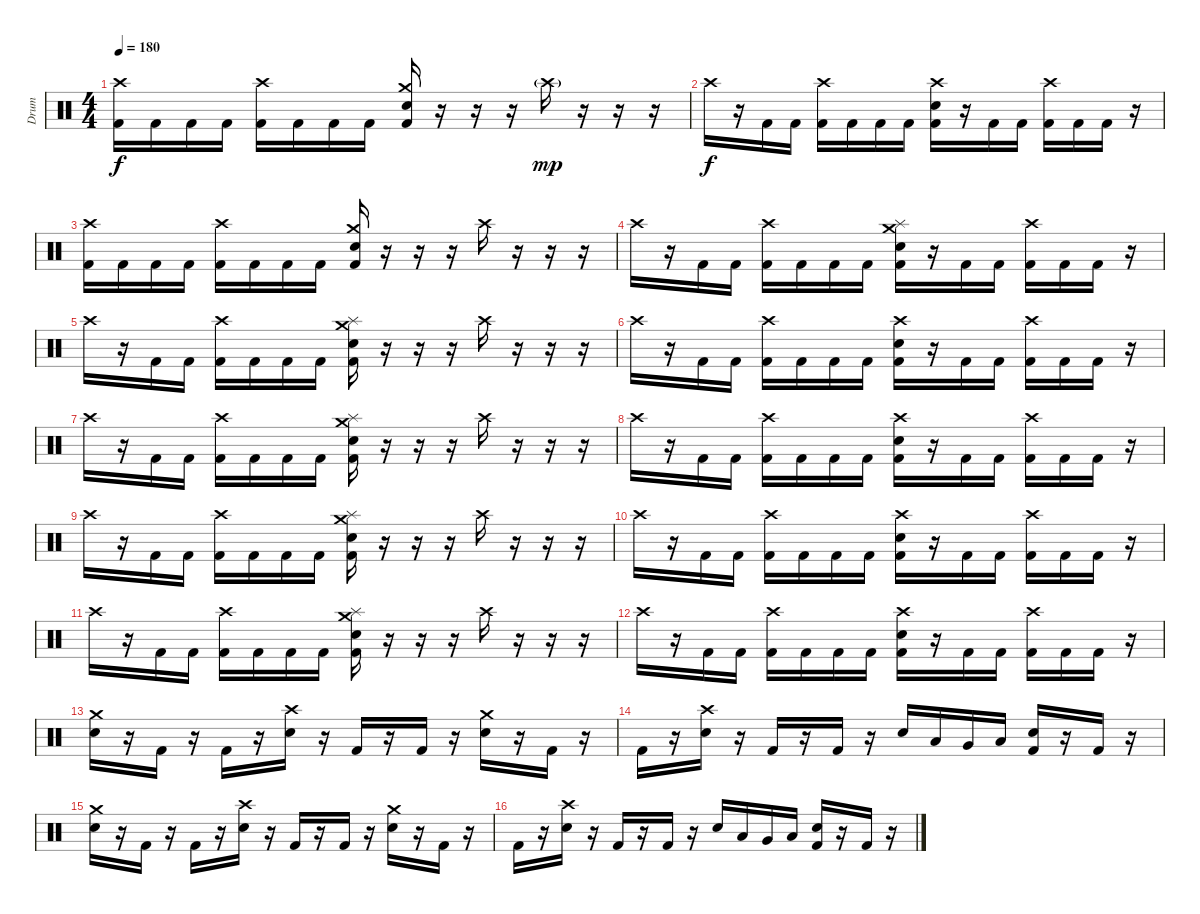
\track ("Drum" "Drum") {instrument percussion}
\staff {score}
\articulation defaults
\ts (4 4)
\tempo 180
\clef neutral
\ks c
("Crash high (hit)" "Kick (hit) 2").16{dy f} "Kick (hit) 2".16 "Kick (hit) 2".16 "Kick (hit) 2".16 ("Crash high (hit)" "Kick (hit) 2").16 "Kick (hit) 2".16 "Kick (hit) 2".16 "Kick (hit) 2".16 ("Crash medium (hit)" "Electric Snare (hit)" "Kick (hit) 2").16 r.16 r.16 r.16 "Crash high (hit)"{g}.16{dy mp} r.16 r.16 r.16 |
"Crash high (hit)".16{dy f} r.16 "Kick (hit) 2".16 "Kick (hit) 2".16 ("Crash high (hit)" "Kick (hit) 2").16 "Kick (hit) 2".16 "Kick (hit) 2".16 "Kick (hit) 2".16 ("Crash high (hit)" "Electric Snare (hit)" "Kick (hit) 2").16 r.16 "Kick (hit) 2".16 "Kick (hit) 2".16 ("Crash high (hit)" "Kick (hit) 2").16 "Kick (hit) 2".16 "Kick (hit) 2".16 r.16 |
("Crash high (hit)" "Kick (hit) 2").16 "Kick (hit) 2".16 "Kick (hit) 2".16 "Kick (hit) 2".16 ("Crash high (hit)" "Kick (hit) 2").16 "Kick (hit) 2".16 "Kick (hit) 2".16 "Kick (hit) 2".16 ("Crash medium (hit)" "Electric Snare (hit)" "Kick (hit) 2").16 r.16 r.16 r.16 "Crash high (hit)".16 r.16 r.16 r.16 |
"Crash high (hit)".16 r.16 "Kick (hit) 2".16 "Kick (hit) 2".16 ("Crash high (hit)" "Kick (hit) 2").16 "Kick (hit) 2".16 "Kick (hit) 2".16 "Kick (hit) 2".16 ("Crash medium (hit)" "Splash (hit)" "Electric Snare (hit)" "Kick (hit) 2").16 r.16 "Kick (hit) 2".16 "Kick (hit) 2".16 ("Crash high (hit)" "Kick (hit) 2").16 "Kick (hit) 2".16 "Kick (hit) 2".16 r.16 |
"Crash high (hit)".16 r.16 "Kick (hit) 2".16 "Kick (hit) 2".16 ("Crash high (hit)" "Kick (hit) 2").16 "Kick (hit) 2".16 "Kick (hit) 2".16 "Kick (hit) 2".16 ("Crash medium (hit)" "Splash (hit)" "Electric Snare (hit)" "Kick (hit) 2").16 r.16 r.16 r.16 "Crash high (hit)".16 r.16 r.16 r.16 |
"Crash high (hit)".16 r.16 "Kick (hit) 2".16 "Kick (hit) 2".16 ("Crash high (hit)" "Kick (hit) 2").16 "Kick (hit) 2".16 "Kick (hit) 2".16 "Kick (hit) 2".16 ("Crash high (hit)" "Electric Snare (hit)" "Kick (hit) 2").16 r.16 "Kick (hit) 2".16 "Kick (hit) 2".16 ("Crash high (hit)" "Kick (hit) 2").16 "Kick (hit) 2".16 "Kick (hit) 2".16 r.16 |
"Crash high (hit)".16 r.16 "Kick (hit) 2".16 "Kick (hit) 2".16 ("Crash high (hit)" "Kick (hit) 2").16 "Kick (hit) 2".16 "Kick (hit) 2".16 "Kick (hit) 2".16 ("Crash medium (hit)" "Splash (hit)" "Electric Snare (hit)" "Kick (hit) 2").16 r.16 r.16 r.16 "Crash high (hit)".16 r.16 r.16 r.16 |
"Crash high (hit)".16 r.16 "Kick (hit) 2".16 "Kick (hit) 2".16 ("Crash high (hit)" "Kick (hit) 2").16 "Kick (hit) 2".16 "Kick (hit) 2".16 "Kick (hit) 2".16 ("Crash high (hit)" "Electric Snare (hit)" "Kick (hit) 2").16 r.16 "Kick (hit) 2".16 "Kick (hit) 2".16 ("Crash high (hit)" "Kick (hit) 2").16 "Kick (hit) 2".16 "Kick (hit) 2".16 r.16 |
"Crash high (hit)".16 r.16 "Kick (hit) 2".16 "Kick (hit) 2".16 ("Crash high (hit)" "Kick (hit) 2").16 "Kick (hit) 2".16 "Kick (hit) 2".16 "Kick (hit) 2".16 ("Crash medium (hit)" "Splash (hit)" "Electric Snare (hit)" "Kick (hit) 2").16 r.16 r.16 r.16 "Crash high (hit)".16 r.16 r.16 r.16 |
"Crash high (hit)".16 r.16 "Kick (hit) 2".16 "Kick (hit) 2".16 ("Crash high (hit)" "Kick (hit) 2").16 "Kick (hit) 2".16 "Kick (hit) 2".16 "Kick (hit) 2".16 ("Crash high (hit)" "Electric Snare (hit)" "Kick (hit) 2").16 r.16 "Kick (hit) 2".16 "Kick (hit) 2".16 ("Crash high (hit)" "Kick (hit) 2").16 "Kick (hit) 2".16 "Kick (hit) 2".16 r.16 |
"Crash high (hit)".16 r.16 "Kick (hit) 2".16 "Kick (hit) 2".16 ("Crash high (hit)" "Kick (hit) 2").16 "Kick (hit) 2".16 "Kick (hit) 2".16 "Kick (hit) 2".16 ("Crash medium (hit)" "Splash (hit)" "Electric Snare (hit)" "Kick (hit) 2").16 r.16 r.16 r.16 "Crash high (hit)".16 r.16 r.16 r.16 |
"Crash high (hit)".16 r.16 "Kick (hit) 2".16 "Kick (hit) 2".16 ("Crash high (hit)" "Kick (hit) 2").16 "Kick (hit) 2".16 "Kick (hit) 2".16 "Kick (hit) 2".16 ("Crash high (hit)" "Electric Snare (hit)" "Kick (hit) 2").16 r.16 "Kick (hit) 2".16 "Kick (hit) 2".16 ("Crash high (hit)" "Kick (hit) 2").16 "Kick (hit) 2".16 "Kick (hit) 2".16 r.16 |
("Crash medium (hit)" "Electric Snare (hit)").16 r.16 "Kick (hit) 2".16 r.16 "Kick (hit) 2".16 r.16 ("Crash high (hit)" "Electric Snare (hit)").16 r.16 "Kick (hit) 2".16 r.16 "Kick (hit) 2".16 r.16 ("Crash medium (hit)" "Electric Snare (hit)").16 r.16 "Kick (hit) 2".16 r.16 |
"Kick (hit) 2".16 r.16 ("Crash high (hit)" "Electric Snare (hit)").16 r.16 "Kick (hit) 2".16 r.16 "Kick (hit) 2".16 r.16 "Electric Snare (hit)".16 "Low Tom (hit)".16 "Very Low Tom (hit)".16 "Low Floor Tom (hit)".16 ("Electric Snare (hit)" "Kick (hit) 2").16 r.16 "Kick (hit) 2".16 r.16 |
("Crash medium (hit)" "Electric Snare (hit)").16 r.16 "Kick (hit) 2".16 r.16 "Kick (hit) 2".16 r.16 ("Crash high (hit)" "Electric Snare (hit)").16 r.16 "Kick (hit) 2".16 r.16 "Kick (hit) 2".16 r.16 ("Crash medium (hit)" "Electric Snare (hit)").16 r.16 "Kick (hit) 2".16 r.16 |
"Kick (hit) 2".16 r.16 ("Crash high (hit)" "Electric Snare (hit)").16 r.16 "Kick (hit) 2".16 r.16 "Kick (hit) 2".16 r.16 "Electric Snare (hit)".16 "Low Tom (hit)".16 "Very Low Tom (hit)".16 "Low Floor Tom (hit)".16 ("Electric Snare (hit)" "Kick (hit) 2").16 r.16 "Kick (hit) 2".16 r.16
